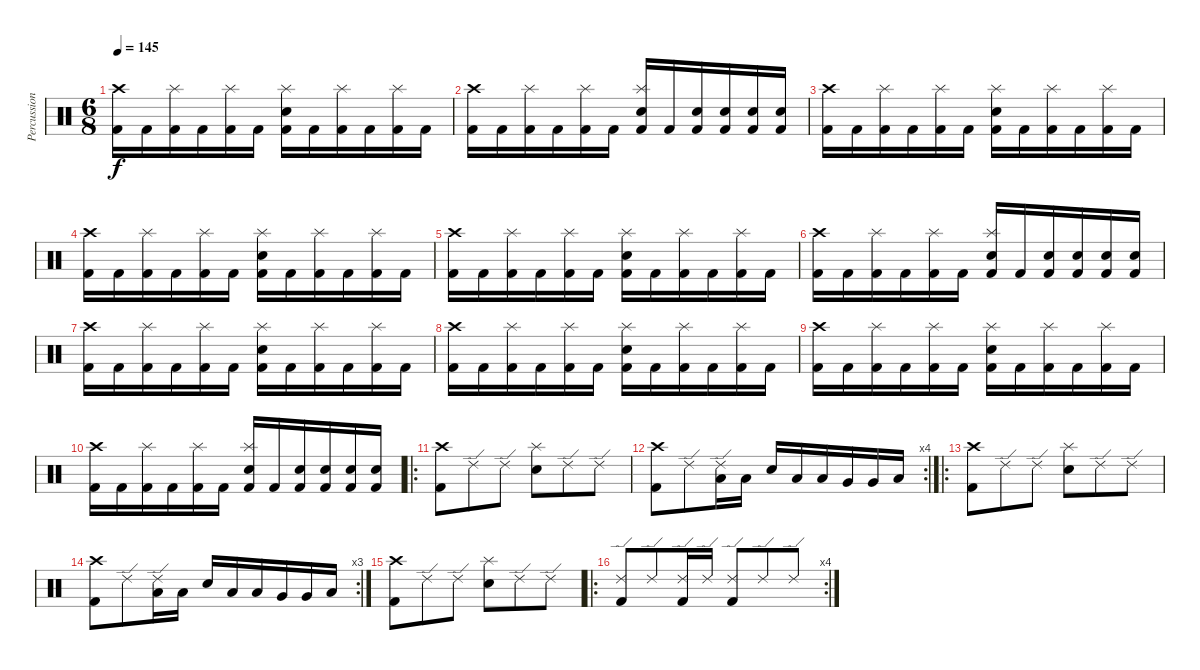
\track ("Percussion" "Percussion") {instrument percussion}
\staff {score}
\articulation defaults
\ts (6 8)
\tempo 145
\clef neutral
\ks c
("Crash high (hit)" "Kick (hit) 2").16{dy f} "Kick (hit) 2".16 ("Splash (hit)" "Kick (hit) 2").16 "Kick (hit) 2".16 ("Splash (hit)" "Kick (hit) 2").16 "Kick (hit) 2".16 ("Splash (hit)" "Electric Snare (hit)" "Kick (hit) 2").16 "Kick (hit) 2".16 ("Splash (hit)" "Kick (hit) 2").16 "Kick (hit) 2".16 ("Splash (hit)" "Kick (hit) 2").16 "Kick (hit) 2".16 |
("Crash high (hit)" "Kick (hit) 2").16 "Kick (hit) 2".16 ("Splash (hit)" "Kick (hit) 2").16 "Kick (hit) 2".16 ("Splash (hit)" "Kick (hit) 2").16 "Kick (hit) 2".16 ("Splash (hit)" "Electric Snare (hit)" "Kick (hit) 2").16 "Kick (hit) 2".16 ("Electric Snare (hit)" "Kick (hit) 2").16 ("Electric Snare (hit)" "Kick (hit) 2").16 ("Electric Snare (hit)" "Kick (hit) 2").16 ("Electric Snare (hit)" "Kick (hit) 2").16 |
("Crash high (hit)" "Kick (hit) 2").16 "Kick (hit) 2".16 ("Splash (hit)" "Kick (hit) 2").16 "Kick (hit) 2".16 ("Splash (hit)" "Kick (hit) 2").16 "Kick (hit) 2".16 ("Splash (hit)" "Electric Snare (hit)" "Kick (hit) 2").16 "Kick (hit) 2".16 ("Splash (hit)" "Kick (hit) 2").16 "Kick (hit) 2".16 ("Splash (hit)" "Kick (hit) 2").16 "Kick (hit) 2".16 |
("Crash high (hit)" "Kick (hit) 2").16 "Kick (hit) 2".16 ("Splash (hit)" "Kick (hit) 2").16 "Kick (hit) 2".16 ("Splash (hit)" "Kick (hit) 2").16 "Kick (hit) 2".16 ("Splash (hit)" "Electric Snare (hit)" "Kick (hit) 2").16 "Kick (hit) 2".16 ("Splash (hit)" "Kick (hit) 2").16 "Kick (hit) 2".16 ("Splash (hit)" "Kick (hit) 2").16 "Kick (hit) 2".16 |
("Crash high (hit)" "Kick (hit) 2").16 "Kick (hit) 2".16 ("Splash (hit)" "Kick (hit) 2").16 "Kick (hit) 2".16 ("Splash (hit)" "Kick (hit) 2").16 "Kick (hit) 2".16 ("Splash (hit)" "Electric Snare (hit)" "Kick (hit) 2").16 "Kick (hit) 2".16 ("Splash (hit)" "Kick (hit) 2").16 "Kick (hit) 2".16 ("Splash (hit)" "Kick (hit) 2").16 "Kick (hit) 2".16 |
("Crash high (hit)" "Kick (hit) 2").16 "Kick (hit) 2".16 ("Splash (hit)" "Kick (hit) 2").16 "Kick (hit) 2".16 ("Splash (hit)" "Kick (hit) 2").16 "Kick (hit) 2".16 ("Splash (hit)" "Electric Snare (hit)" "Kick (hit) 2").16 "Kick (hit) 2".16 ("Electric Snare (hit)" "Kick (hit) 2").16 ("Electric Snare (hit)" "Kick (hit) 2").16 ("Electric Snare (hit)" "Kick (hit) 2").16 ("Electric Snare (hit)" "Kick (hit) 2").16 |
("Crash high (hit)" "Kick (hit) 2").16 "Kick (hit) 2".16 ("Splash (hit)" "Kick (hit) 2").16 "Kick (hit) 2".16 ("Splash (hit)" "Kick (hit) 2").16 "Kick (hit) 2".16 ("Splash (hit)" "Electric Snare (hit)" "Kick (hit) 2").16 "Kick (hit) 2".16 ("Splash (hit)" "Kick (hit) 2").16 "Kick (hit) 2".16 ("Splash (hit)" "Kick (hit) 2").16 "Kick (hit) 2".16 |
("Crash high (hit)" "Kick (hit) 2").16 "Kick (hit) 2".16 ("Splash (hit)" "Kick (hit) 2").16 "Kick (hit) 2".16 ("Splash (hit)" "Kick (hit) 2").16 "Kick (hit) 2".16 ("Splash (hit)" "Electric Snare (hit)" "Kick (hit) 2").16 "Kick (hit) 2".16 ("Splash (hit)" "Kick (hit) 2").16 "Kick (hit) 2".16 ("Splash (hit)" "Kick (hit) 2").16 "Kick (hit) 2".16 |
("Crash high (hit)" "Kick (hit) 2").16 "Kick (hit) 2".16 ("Splash (hit)" "Kick (hit) 2").16 "Kick (hit) 2".16 ("Splash (hit)" "Kick (hit) 2").16 "Kick (hit) 2".16 ("Splash (hit)" "Electric Snare (hit)" "Kick (hit) 2").16 "Kick (hit) 2".16 ("Splash (hit)" "Kick (hit) 2").16 "Kick (hit) 2".16 ("Splash (hit)" "Kick (hit) 2").16 "Kick (hit) 2".16 |
("Crash high (hit)" "Kick (hit) 2").16 "Kick (hit) 2".16 ("Splash (hit)" "Kick (hit) 2").16 "Kick (hit) 2".16 ("Splash (hit)" "Kick (hit) 2").16 "Kick (hit) 2".16 ("Splash (hit)" "Electric Snare (hit)" "Kick (hit) 2").16 "Kick (hit) 2".16 ("Electric Snare (hit)" "Kick (hit) 2").16 ("Electric Snare (hit)" "Kick (hit) 2").16 ("Electric Snare (hit)" "Kick (hit) 2").16 ("Electric Snare (hit)" "Kick (hit) 2").16 |
\ro
("Crash high (hit)" "Kick (hit) 2").8 "Ride (edge) 2".8 "Ride (edge) 2".8 ("Splash (hit)" "Electric Snare (hit)").8 "Ride (edge) 2".8 "Ride (edge) 2".8 |
\rc 4
("Crash high (hit)" "Kick (hit) 2").8 "Ride (edge) 2".8 ("Ride (edge) 2" "Low Tom (hit)").16 "Low Tom (hit)".16 "Electric Snare (hit)".16 "Low Tom (hit)".16 "Low Tom (hit)".16 "Very Low Tom (hit)".16 "Very Low Tom (hit)".16 "Low Floor Tom (hit)".16 |
\ro
("Crash high (hit)" "Kick (hit) 2").8 "Ride (edge) 2".8 "Ride (edge) 2".8 ("Splash (hit)" "Electric Snare (hit)").8 "Ride (edge) 2".8 "Ride (edge) 2".8 |
\rc 3
("Crash high (hit)" "Kick (hit) 2").8 "Ride (edge) 2".8 ("Ride (edge) 2" "Low Tom (hit)").16 "Low Tom (hit)".16 "Electric Snare (hit)".16 "Low Tom (hit)".16 "Low Tom (hit)".16 "Very Low Tom (hit)".16 "Very Low Tom (hit)".16 "Low Floor Tom (hit)".16 |
("Crash high (hit)" "Kick (hit) 2").8 "Ride (edge) 2".8 "Ride (edge) 2".8 ("Splash (hit)" "Electric Snare (hit)").8 "Ride (edge) 2".8 "Ride (edge) 2".8 |
\ro
\rc 4
("Ride (edge) 2" "Kick (hit) 2").8 "Ride (edge) 2".8 ("Ride (edge) 2" "Kick (hit) 2").16 "Ride (edge) 2".16 ("Ride (edge) 2" "Kick (hit) 2").8 "Ride (edge) 2".8 "Ride (edge) 2".8
